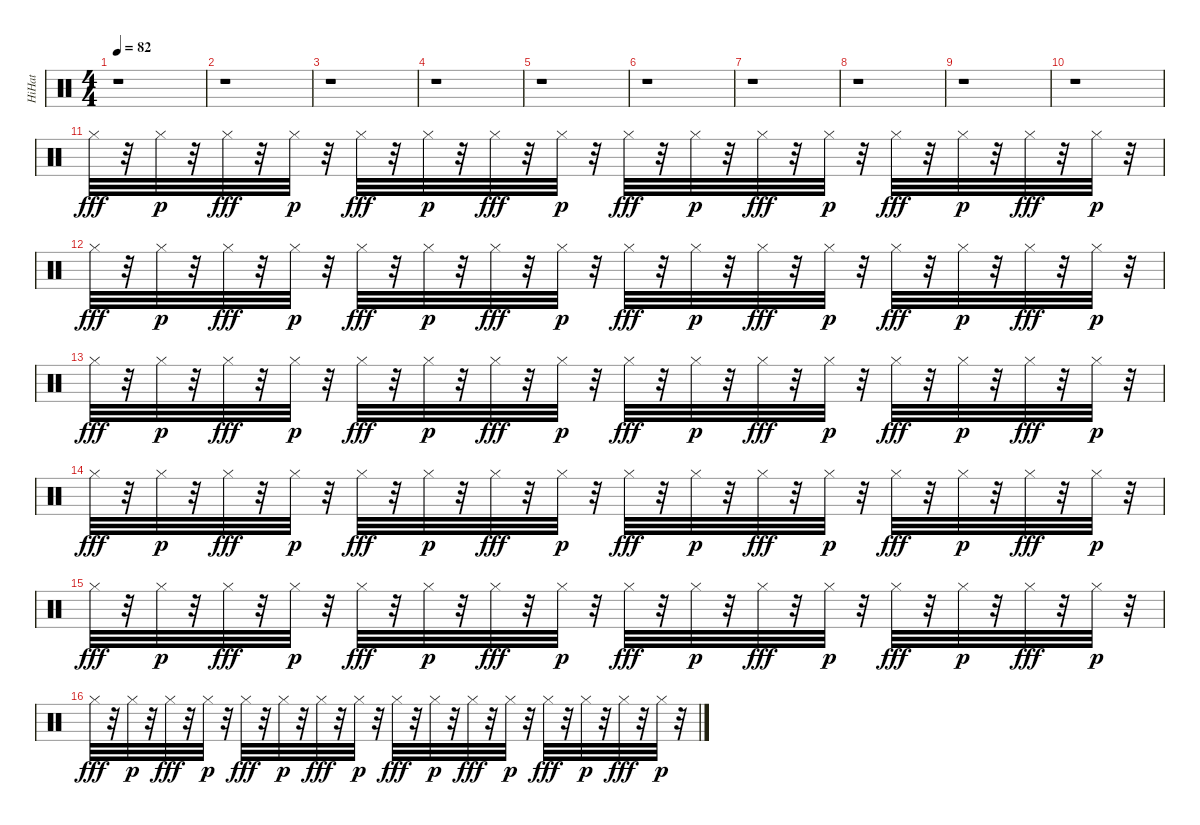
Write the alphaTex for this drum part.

\track ("HiHat" "HiHat") {instrument percussion}
\staff {score}
\articulation defaults
\ts (4 4)
\tempo 82
\clef neutral
\ks c
r.1{dy fff} |
r.1 |
r.1 |
r.1 |
r.1 |
r.1 |
r.1 |
r.1 |
r.1 |
r.1 |
"Hi-Hat (closed)".32 r.32 "Hi-Hat (closed)".32{dy p} r.32 "Hi-Hat (closed)".32{dy fff} r.32 "Hi-Hat (closed)".32{dy p} r.32 "Hi-Hat (closed)".32{dy fff} r.32 "Hi-Hat (closed)".32{dy p} r.32 "Hi-Hat (closed)".32{dy fff} r.32 "Hi-Hat (closed)".32{dy p} r.32 "Hi-Hat (closed)".32{dy fff} r.32 "Hi-Hat (closed)".32{dy p} r.32 "Hi-Hat (closed)".32{dy fff} r.32 "Hi-Hat (closed)".32{dy p} r.32 "Hi-Hat (closed)".32{dy fff} r.32 "Hi-Hat (closed)".32{dy p} r.32 "Hi-Hat (closed)".32{dy fff} r.32 "Hi-Hat (closed)".32{dy p} r.32 |
"Hi-Hat (closed)".32{dy fff} r.32 "Hi-Hat (closed)".32{dy p} r.32 "Hi-Hat (closed)".32{dy fff} r.32 "Hi-Hat (closed)".32{dy p} r.32 "Hi-Hat (closed)".32{dy fff} r.32 "Hi-Hat (closed)".32{dy p} r.32 "Hi-Hat (closed)".32{dy fff} r.32 "Hi-Hat (closed)".32{dy p} r.32 "Hi-Hat (closed)".32{dy fff} r.32 "Hi-Hat (closed)".32{dy p} r.32 "Hi-Hat (closed)".32{dy fff} r.32 "Hi-Hat (closed)".32{dy p} r.32 "Hi-Hat (closed)".32{dy fff} r.32 "Hi-Hat (closed)".32{dy p} r.32 "Hi-Hat (closed)".32{dy fff} r.32 "Hi-Hat (closed)".32{dy p} r.32 |
"Hi-Hat (closed)".32{dy fff} r.32 "Hi-Hat (closed)".32{dy p} r.32 "Hi-Hat (closed)".32{dy fff} r.32 "Hi-Hat (closed)".32{dy p} r.32 "Hi-Hat (closed)".32{dy fff} r.32 "Hi-Hat (closed)".32{dy p} r.32 "Hi-Hat (closed)".32{dy fff} r.32 "Hi-Hat (closed)".32{dy p} r.32 "Hi-Hat (closed)".32{dy fff} r.32 "Hi-Hat (closed)".32{dy p} r.32 "Hi-Hat (closed)".32{dy fff} r.32 "Hi-Hat (closed)".32{dy p} r.32 "Hi-Hat (closed)".32{dy fff} r.32 "Hi-Hat (closed)".32{dy p} r.32 "Hi-Hat (closed)".32{dy fff} r.32 "Hi-Hat (closed)".32{dy p} r.32 |
"Hi-Hat (closed)".32{dy fff} r.32 "Hi-Hat (closed)".32{dy p} r.32 "Hi-Hat (closed)".32{dy fff} r.32 "Hi-Hat (closed)".32{dy p} r.32 "Hi-Hat (closed)".32{dy fff} r.32 "Hi-Hat (closed)".32{dy p} r.32 "Hi-Hat (closed)".32{dy fff} r.32 "Hi-Hat (closed)".32{dy p} r.32 "Hi-Hat (closed)".32{dy fff} r.32 "Hi-Hat (closed)".32{dy p} r.32 "Hi-Hat (closed)".32{dy fff} r.32 "Hi-Hat (closed)".32{dy p} r.32 "Hi-Hat (closed)".32{dy fff} r.32 "Hi-Hat (closed)".32{dy p} r.32 "Hi-Hat (closed)".32{dy fff} r.32 "Hi-Hat (closed)".32{dy p} r.32 |
"Hi-Hat (closed)".32{dy fff} r.32 "Hi-Hat (closed)".32{dy p} r.32 "Hi-Hat (closed)".32{dy fff} r.32 "Hi-Hat (closed)".32{dy p} r.32 "Hi-Hat (closed)".32{dy fff} r.32 "Hi-Hat (closed)".32{dy p} r.32 "Hi-Hat (closed)".32{dy fff} r.32 "Hi-Hat (closed)".32{dy p} r.32 "Hi-Hat (closed)".32{dy fff} r.32 "Hi-Hat (closed)".32{dy p} r.32 "Hi-Hat (closed)".32{dy fff} r.32 "Hi-Hat (closed)".32{dy p} r.32 "Hi-Hat (closed)".32{dy fff} r.32 "Hi-Hat (closed)".32{dy p} r.32 "Hi-Hat (closed)".32{dy fff} r.32 "Hi-Hat (closed)".32{dy p} r.32 |
"Hi-Hat (closed)".32{dy fff} r.32 "Hi-Hat (closed)".32{dy p} r.32 "Hi-Hat (closed)".32{dy fff} r.32 "Hi-Hat (closed)".32{dy p} r.32 "Hi-Hat (closed)".32{dy fff} r.32 "Hi-Hat (closed)".32{dy p} r.32 "Hi-Hat (closed)".32{dy fff} r.32 "Hi-Hat (closed)".32{dy p} r.32 "Hi-Hat (closed)".32{dy fff} r.32 "Hi-Hat (closed)".32{dy p} r.32 "Hi-Hat (closed)".32{dy fff} r.32 "Hi-Hat (closed)".32{dy p} r.32 "Hi-Hat (closed)".32{dy fff} r.32 "Hi-Hat (closed)".32{dy p} r.32 "Hi-Hat (closed)".32{dy fff} r.32 "Hi-Hat (closed)".32{dy p} r.32
